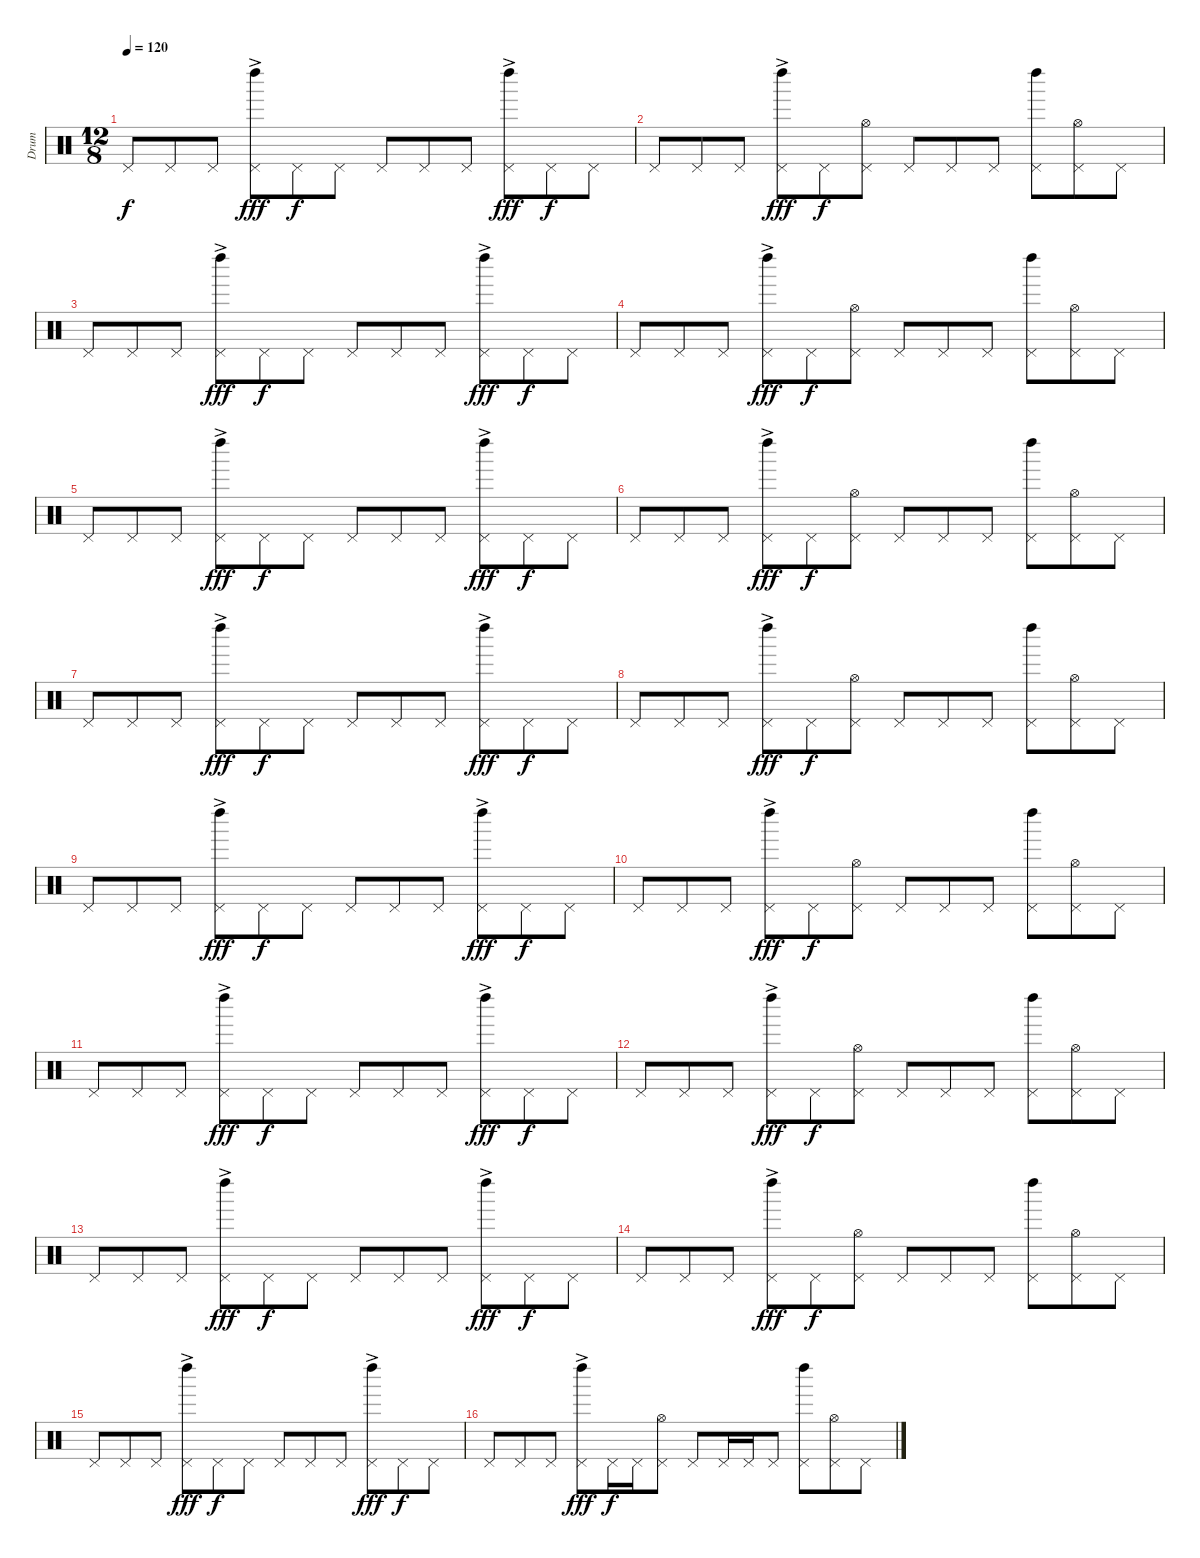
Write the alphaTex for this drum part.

\track ("Drum" "Drum") {instrument percussion}
\staff {score}
\articulation defaults
\ts (12 8)
\tempo 120
\clef neutral
\ks c "Pedal Hi-Hat (hit)".8{dy f} "Pedal Hi-Hat (hit)".8 "Pedal Hi-Hat (hit)".8
("Pedal Hi-Hat (hit)"{ac} "Left Maraca (hit)"{ac}).8{dy fff} "Pedal Hi-Hat (hit)".8{dy f} "Pedal Hi-Hat (hit)".8 "Pedal Hi-Hat (hit)".8 "Pedal Hi-Hat (hit)".8 "Pedal Hi-Hat (hit)".8 ("Pedal Hi-Hat (hit)"{ac} "Left Maraca (hit)"{ac}).8{dy fff} "Pedal Hi-Hat (hit)".8{dy f} "Pedal Hi-Hat (hit)".8 |
"Pedal Hi-Hat (hit)".8 "Pedal Hi-Hat (hit)".8 "Pedal Hi-Hat (hit)".8 ("Pedal Hi-Hat (hit)"{ac} "Left Maraca (hit)"{ac}).8{dy fff} "Pedal Hi-Hat (hit)".8{dy f} ("Pedal Hi-Hat (hit)" "Hi-Hat (open)").8 "Pedal Hi-Hat (hit)".8 "Pedal Hi-Hat (hit)".8 "Pedal Hi-Hat (hit)".8 ("Pedal Hi-Hat (hit)" "Left Maraca (hit)").8 ("Pedal Hi-Hat (hit)" "Hi-Hat (open)").8 "Pedal Hi-Hat (hit)".8 |
"Pedal Hi-Hat (hit)".8 "Pedal Hi-Hat (hit)".8 "Pedal Hi-Hat (hit)".8 ("Pedal Hi-Hat (hit)"{ac} "Left Maraca (hit)"{ac}).8{dy fff} "Pedal Hi-Hat (hit)".8{dy f} "Pedal Hi-Hat (hit)".8 "Pedal Hi-Hat (hit)".8 "Pedal Hi-Hat (hit)".8 "Pedal Hi-Hat (hit)".8 ("Pedal Hi-Hat (hit)"{ac} "Left Maraca (hit)"{ac}).8{dy fff} "Pedal Hi-Hat (hit)".8{dy f} "Pedal Hi-Hat (hit)".8 |
"Pedal Hi-Hat (hit)".8 "Pedal Hi-Hat (hit)".8 "Pedal Hi-Hat (hit)".8 ("Pedal Hi-Hat (hit)"{ac} "Left Maraca (hit)"{ac}).8{dy fff} "Pedal Hi-Hat (hit)".8{dy f} ("Pedal Hi-Hat (hit)" "Hi-Hat (open)").8 "Pedal Hi-Hat (hit)".8 "Pedal Hi-Hat (hit)".8 "Pedal Hi-Hat (hit)".8 ("Pedal Hi-Hat (hit)" "Left Maraca (hit)").8 ("Pedal Hi-Hat (hit)" "Hi-Hat (open)").8 "Pedal Hi-Hat (hit)".8 |
"Pedal Hi-Hat (hit)".8 "Pedal Hi-Hat (hit)".8 "Pedal Hi-Hat (hit)".8 ("Pedal Hi-Hat (hit)"{ac} "Left Maraca (hit)"{ac}).8{dy fff} "Pedal Hi-Hat (hit)".8{dy f} "Pedal Hi-Hat (hit)".8 "Pedal Hi-Hat (hit)".8 "Pedal Hi-Hat (hit)".8 "Pedal Hi-Hat (hit)".8 ("Pedal Hi-Hat (hit)"{ac} "Left Maraca (hit)"{ac}).8{dy fff} "Pedal Hi-Hat (hit)".8{dy f} "Pedal Hi-Hat (hit)".8 |
"Pedal Hi-Hat (hit)".8 "Pedal Hi-Hat (hit)".8 "Pedal Hi-Hat (hit)".8 ("Pedal Hi-Hat (hit)"{ac} "Left Maraca (hit)"{ac}).8{dy fff} "Pedal Hi-Hat (hit)".8{dy f} ("Pedal Hi-Hat (hit)" "Hi-Hat (open)").8 "Pedal Hi-Hat (hit)".8 "Pedal Hi-Hat (hit)".8 "Pedal Hi-Hat (hit)".8 ("Pedal Hi-Hat (hit)" "Left Maraca (hit)").8 ("Pedal Hi-Hat (hit)" "Hi-Hat (open)").8 "Pedal Hi-Hat (hit)".8 |
"Pedal Hi-Hat (hit)".8 "Pedal Hi-Hat (hit)".8 "Pedal Hi-Hat (hit)".8 ("Pedal Hi-Hat (hit)"{ac} "Left Maraca (hit)"{ac}).8{dy fff} "Pedal Hi-Hat (hit)".8{dy f} "Pedal Hi-Hat (hit)".8 "Pedal Hi-Hat (hit)".8 "Pedal Hi-Hat (hit)".8 "Pedal Hi-Hat (hit)".8 ("Pedal Hi-Hat (hit)"{ac} "Left Maraca (hit)"{ac}).8{dy fff} "Pedal Hi-Hat (hit)".8{dy f} "Pedal Hi-Hat (hit)".8 |
"Pedal Hi-Hat (hit)".8 "Pedal Hi-Hat (hit)".8 "Pedal Hi-Hat (hit)".8 ("Pedal Hi-Hat (hit)"{ac} "Left Maraca (hit)"{ac}).8{dy fff} "Pedal Hi-Hat (hit)".8{dy f} ("Pedal Hi-Hat (hit)" "Hi-Hat (open)").8 "Pedal Hi-Hat (hit)".8 "Pedal Hi-Hat (hit)".8 "Pedal Hi-Hat (hit)".8 ("Pedal Hi-Hat (hit)" "Left Maraca (hit)").8 ("Pedal Hi-Hat (hit)" "Hi-Hat (open)").8 "Pedal Hi-Hat (hit)".8 |
"Pedal Hi-Hat (hit)".8 "Pedal Hi-Hat (hit)".8 "Pedal Hi-Hat (hit)".8 ("Pedal Hi-Hat (hit)"{ac} "Left Maraca (hit)"{ac}).8{dy fff} "Pedal Hi-Hat (hit)".8{dy f} "Pedal Hi-Hat (hit)".8 "Pedal Hi-Hat (hit)".8 "Pedal Hi-Hat (hit)".8 "Pedal Hi-Hat (hit)".8 ("Pedal Hi-Hat (hit)"{ac} "Left Maraca (hit)"{ac}).8{dy fff} "Pedal Hi-Hat (hit)".8{dy f} "Pedal Hi-Hat (hit)".8 |
"Pedal Hi-Hat (hit)".8 "Pedal Hi-Hat (hit)".8 "Pedal Hi-Hat (hit)".8 ("Pedal Hi-Hat (hit)"{ac} "Left Maraca (hit)"{ac}).8{dy fff} "Pedal Hi-Hat (hit)".8{dy f} ("Pedal Hi-Hat (hit)" "Hi-Hat (open)").8 "Pedal Hi-Hat (hit)".8 "Pedal Hi-Hat (hit)".8 "Pedal Hi-Hat (hit)".8 ("Pedal Hi-Hat (hit)" "Left Maraca (hit)").8 ("Pedal Hi-Hat (hit)" "Hi-Hat (open)").8 "Pedal Hi-Hat (hit)".8 |
"Pedal Hi-Hat (hit)".8 "Pedal Hi-Hat (hit)".8 "Pedal Hi-Hat (hit)".8 ("Pedal Hi-Hat (hit)"{ac} "Left Maraca (hit)"{ac}).8{dy fff} "Pedal Hi-Hat (hit)".8{dy f} "Pedal Hi-Hat (hit)".8 "Pedal Hi-Hat (hit)".8 "Pedal Hi-Hat (hit)".8 "Pedal Hi-Hat (hit)".8 ("Pedal Hi-Hat (hit)"{ac} "Left Maraca (hit)"{ac}).8{dy fff} "Pedal Hi-Hat (hit)".8{dy f} "Pedal Hi-Hat (hit)".8 |
"Pedal Hi-Hat (hit)".8 "Pedal Hi-Hat (hit)".8 "Pedal Hi-Hat (hit)".8 ("Pedal Hi-Hat (hit)"{ac} "Left Maraca (hit)"{ac}).8{dy fff} "Pedal Hi-Hat (hit)".8{dy f} ("Pedal Hi-Hat (hit)" "Hi-Hat (open)").8 "Pedal Hi-Hat (hit)".8 "Pedal Hi-Hat (hit)".8 "Pedal Hi-Hat (hit)".8 ("Pedal Hi-Hat (hit)" "Left Maraca (hit)").8 ("Pedal Hi-Hat (hit)" "Hi-Hat (open)").8 "Pedal Hi-Hat (hit)".8 |
"Pedal Hi-Hat (hit)".8 "Pedal Hi-Hat (hit)".8 "Pedal Hi-Hat (hit)".8 ("Pedal Hi-Hat (hit)"{ac} "Left Maraca (hit)"{ac}).8{dy fff} "Pedal Hi-Hat (hit)".8{dy f} "Pedal Hi-Hat (hit)".8 "Pedal Hi-Hat (hit)".8 "Pedal Hi-Hat (hit)".8 "Pedal Hi-Hat (hit)".8 ("Pedal Hi-Hat (hit)"{ac} "Left Maraca (hit)"{ac}).8{dy fff} "Pedal Hi-Hat (hit)".8{dy f} "Pedal Hi-Hat (hit)".8 |
"Pedal Hi-Hat (hit)".8 "Pedal Hi-Hat (hit)".8 "Pedal Hi-Hat (hit)".8 ("Pedal Hi-Hat (hit)"{ac} "Left Maraca (hit)"{ac}).8{dy fff} "Pedal Hi-Hat (hit)".8{dy f} ("Pedal Hi-Hat (hit)" "Hi-Hat (open)").8 "Pedal Hi-Hat (hit)".8 "Pedal Hi-Hat (hit)".8 "Pedal Hi-Hat (hit)".8 ("Pedal Hi-Hat (hit)" "Left Maraca (hit)").8 ("Pedal Hi-Hat (hit)" "Hi-Hat (open)").8 "Pedal Hi-Hat (hit)".8 |
"Pedal Hi-Hat (hit)".8 "Pedal Hi-Hat (hit)".8 "Pedal Hi-Hat (hit)".8 ("Pedal Hi-Hat (hit)"{ac} "Left Maraca (hit)"{ac}).8{dy fff} "Pedal Hi-Hat (hit)".8{dy f} "Pedal Hi-Hat (hit)".8 "Pedal Hi-Hat (hit)".8 "Pedal Hi-Hat (hit)".8 "Pedal Hi-Hat (hit)".8 ("Pedal Hi-Hat (hit)"{ac} "Left Maraca (hit)"{ac}).8{dy fff} "Pedal Hi-Hat (hit)".8{dy f} "Pedal Hi-Hat (hit)".8 |
"Pedal Hi-Hat (hit)".8 "Pedal Hi-Hat (hit)".8 "Pedal Hi-Hat (hit)".8 ("Pedal Hi-Hat (hit)"{ac} "Left Maraca (hit)"{ac}).8{dy fff} "Pedal Hi-Hat (hit)".16{dy f} "Pedal Hi-Hat (hit)".16 ("Pedal Hi-Hat (hit)" "Hi-Hat (open)").8 "Pedal Hi-Hat (hit)".8 "Pedal Hi-Hat (hit)".16 "Pedal Hi-Hat (hit)".16 "Pedal Hi-Hat (hit)".8 ("Pedal Hi-Hat (hit)" "Left Maraca (hit)").8 ("Pedal Hi-Hat (hit)" "Hi-Hat (open)").8 "Pedal Hi-Hat (hit)".8
